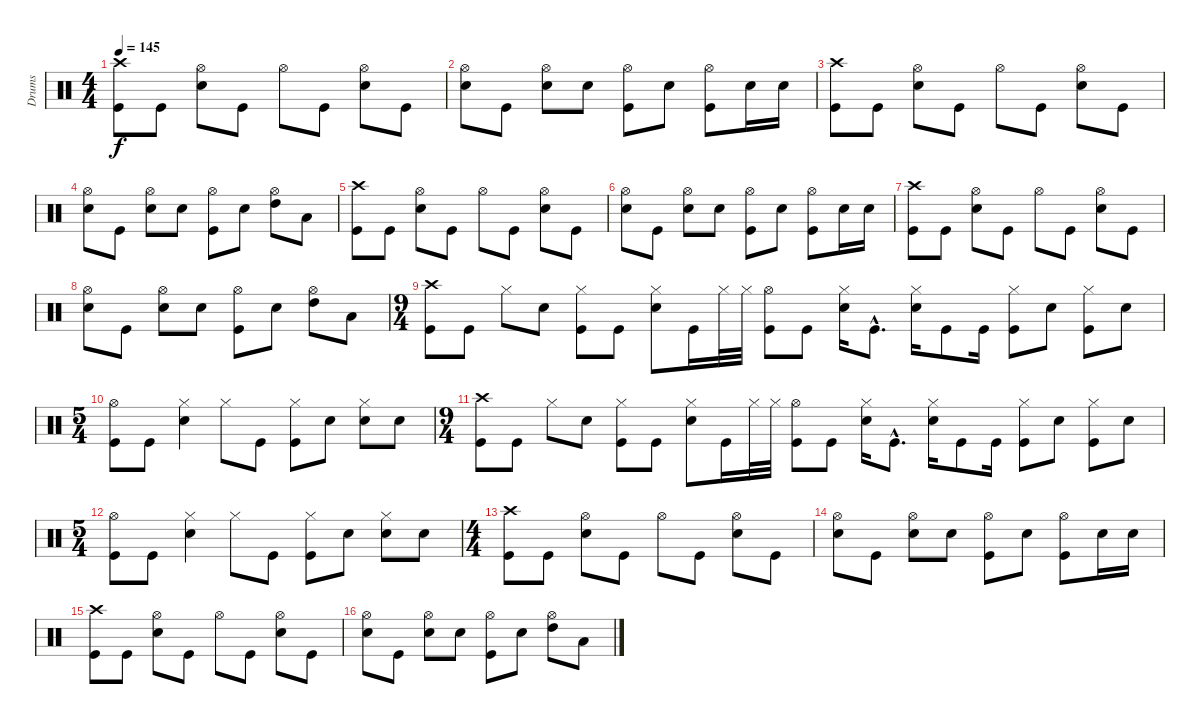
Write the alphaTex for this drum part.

\track ("Drums" "Drums") {instrument percussion}
\staff {score}
\articulation defaults
\ts (4 4)
\tempo 145
\clef neutral
\ks c
("Crash high (hit)" "Kick (hit)").8{dy f} "Kick (hit)".8 ("Hi-Hat (open)" "Electric Snare (hit)").8 "Kick (hit)".8 "Hi-Hat (open)".8 "Kick (hit)".8 ("Hi-Hat (open)" "Electric Snare (hit)").8 "Kick (hit)".8 |
("Hi-Hat (open)" "Electric Snare (hit)").8 "Kick (hit)".8 ("Hi-Hat (open)" "Electric Snare (hit)").8 "Electric Snare (hit)".8 ("Hi-Hat (open)" "Kick (hit)").8 "Electric Snare (hit)".8 ("Hi-Hat (open)" "Kick (hit)").8 "Electric Snare (hit)".16 "Electric Snare (hit)".16 |
("Crash high (hit)" "Kick (hit)").8 "Kick (hit)".8 ("Hi-Hat (open)" "Electric Snare (hit)").8 "Kick (hit)".8 "Hi-Hat (open)".8 "Kick (hit)".8 ("Hi-Hat (open)" "Electric Snare (hit)").8 "Kick (hit)".8 |
("Hi-Hat (open)" "Electric Snare (hit)").8 "Kick (hit)".8 ("Hi-Hat (open)" "Electric Snare (hit)").8 "Electric Snare (hit)".8 ("Hi-Hat (open)" "Kick (hit)").8 "Electric Snare (hit)".8 ("Hi-Hat (open)" "High Tom (hit)").8 "Low Tom (hit)".8 |
("Crash high (hit)" "Kick (hit)").8 "Kick (hit)".8 ("Hi-Hat (open)" "Electric Snare (hit)").8 "Kick (hit)".8 "Hi-Hat (open)".8 "Kick (hit)".8 ("Hi-Hat (open)" "Electric Snare (hit)").8 "Kick (hit)".8 |
("Hi-Hat (open)" "Electric Snare (hit)").8 "Kick (hit)".8 ("Hi-Hat (open)" "Electric Snare (hit)").8 "Electric Snare (hit)".8 ("Hi-Hat (open)" "Kick (hit)").8 "Electric Snare (hit)".8 ("Hi-Hat (open)" "Kick (hit)").8 "Electric Snare (hit)".16 "Electric Snare (hit)".16 |
("Crash high (hit)" "Kick (hit)").8 "Kick (hit)".8 ("Hi-Hat (open)" "Electric Snare (hit)").8 "Kick (hit)".8 "Hi-Hat (open)".8 "Kick (hit)".8 ("Hi-Hat (open)" "Electric Snare (hit)").8 "Kick (hit)".8 |
("Hi-Hat (open)" "Electric Snare (hit)").8 "Kick (hit)".8 ("Hi-Hat (open)" "Electric Snare (hit)").8 "Electric Snare (hit)".8 ("Hi-Hat (open)" "Kick (hit)").8 "Electric Snare (hit)".8 ("Hi-Hat (open)" "High Tom (hit)").8 "Low Tom (hit)".8 |
\ts (9 4)
("Crash high (hit)" "Kick (hit)").8 "Kick (hit)".8 "Hi-Hat (closed)".8 "Electric Snare (hit)".8 ("Hi-Hat (closed)" "Kick (hit)").8 "Kick (hit)".8 ("Hi-Hat (closed)" "Electric Snare (hit)").8 "Kick (hit)".16 "Hi-Hat (closed)".32 "Hi-Hat (closed)".32 ("Hi-Hat (open)" "Kick (hit)").8 "Kick (hit)".8 ("Hi-Hat (closed)" "Electric Snare (hit)").16 "Kick (hit)"{hac}.8{d} ("Hi-Hat (closed)" "Electric Snare (hit)").16 "Kick (hit)".8 "Kick (hit)".16 ("Hi-Hat (closed)" "Kick (hit)").8 "Electric Snare (hit)".8 ("Hi-Hat (closed)" "Kick (hit)").8 "Electric Snare (hit)".8 |
\ts (5 4)
("Hi-Hat (open)" "Kick (hit)").8 "Kick (hit)".8 ("Hi-Hat (closed)" "Electric Snare (hit)").4 "Hi-Hat (closed)".8 "Kick (hit)".8 ("Hi-Hat (closed)" "Kick (hit)").8 "Electric Snare (hit)".8 ("Hi-Hat (closed)" "Electric Snare (hit)").8 "Electric Snare (hit)".8 |
\ts (9 4)
("Crash high (hit)" "Kick (hit)").8 "Kick (hit)".8 "Hi-Hat (closed)".8 "Electric Snare (hit)".8 ("Hi-Hat (closed)" "Kick (hit)").8 "Kick (hit)".8 ("Hi-Hat (closed)" "Electric Snare (hit)").8 "Kick (hit)".16 "Hi-Hat (closed)".32 "Hi-Hat (closed)".32 ("Hi-Hat (open)" "Kick (hit)").8 "Kick (hit)".8 ("Hi-Hat (closed)" "Electric Snare (hit)").16 "Kick (hit)"{hac}.8{d} ("Hi-Hat (closed)" "Electric Snare (hit)").16 "Kick (hit)".8 "Kick (hit)".16 ("Hi-Hat (closed)" "Kick (hit)").8 "Electric Snare (hit)".8 ("Hi-Hat (closed)" "Kick (hit)").8 "Electric Snare (hit)".8 |
\ts (5 4)
("Hi-Hat (open)" "Kick (hit)").8 "Kick (hit)".8 ("Hi-Hat (closed)" "Electric Snare (hit)").4 "Hi-Hat (closed)".8 "Kick (hit)".8 ("Hi-Hat (closed)" "Kick (hit)").8 "Electric Snare (hit)".8 ("Hi-Hat (closed)" "Electric Snare (hit)").8 "Electric Snare (hit)".8 |
\ts (4 4)
("Crash high (hit)" "Kick (hit)").8 "Kick (hit)".8 ("Hi-Hat (open)" "Electric Snare (hit)").8 "Kick (hit)".8 "Hi-Hat (open)".8 "Kick (hit)".8 ("Hi-Hat (open)" "Electric Snare (hit)").8 "Kick (hit)".8 |
("Hi-Hat (open)" "Electric Snare (hit)").8 "Kick (hit)".8 ("Hi-Hat (open)" "Electric Snare (hit)").8 "Electric Snare (hit)".8 ("Hi-Hat (open)" "Kick (hit)").8 "Electric Snare (hit)".8 ("Hi-Hat (open)" "Kick (hit)").8 "Electric Snare (hit)".16 "Electric Snare (hit)".16 |
("Crash high (hit)" "Kick (hit)").8 "Kick (hit)".8 ("Hi-Hat (open)" "Electric Snare (hit)").8 "Kick (hit)".8 "Hi-Hat (open)".8 "Kick (hit)".8 ("Hi-Hat (open)" "Electric Snare (hit)").8 "Kick (hit)".8 |
("Hi-Hat (open)" "Electric Snare (hit)").8 "Kick (hit)".8 ("Hi-Hat (open)" "Electric Snare (hit)").8 "Electric Snare (hit)".8 ("Hi-Hat (open)" "Kick (hit)").8 "Electric Snare (hit)".8 ("Hi-Hat (open)" "High Tom (hit)").8 "Low Tom (hit)".8
